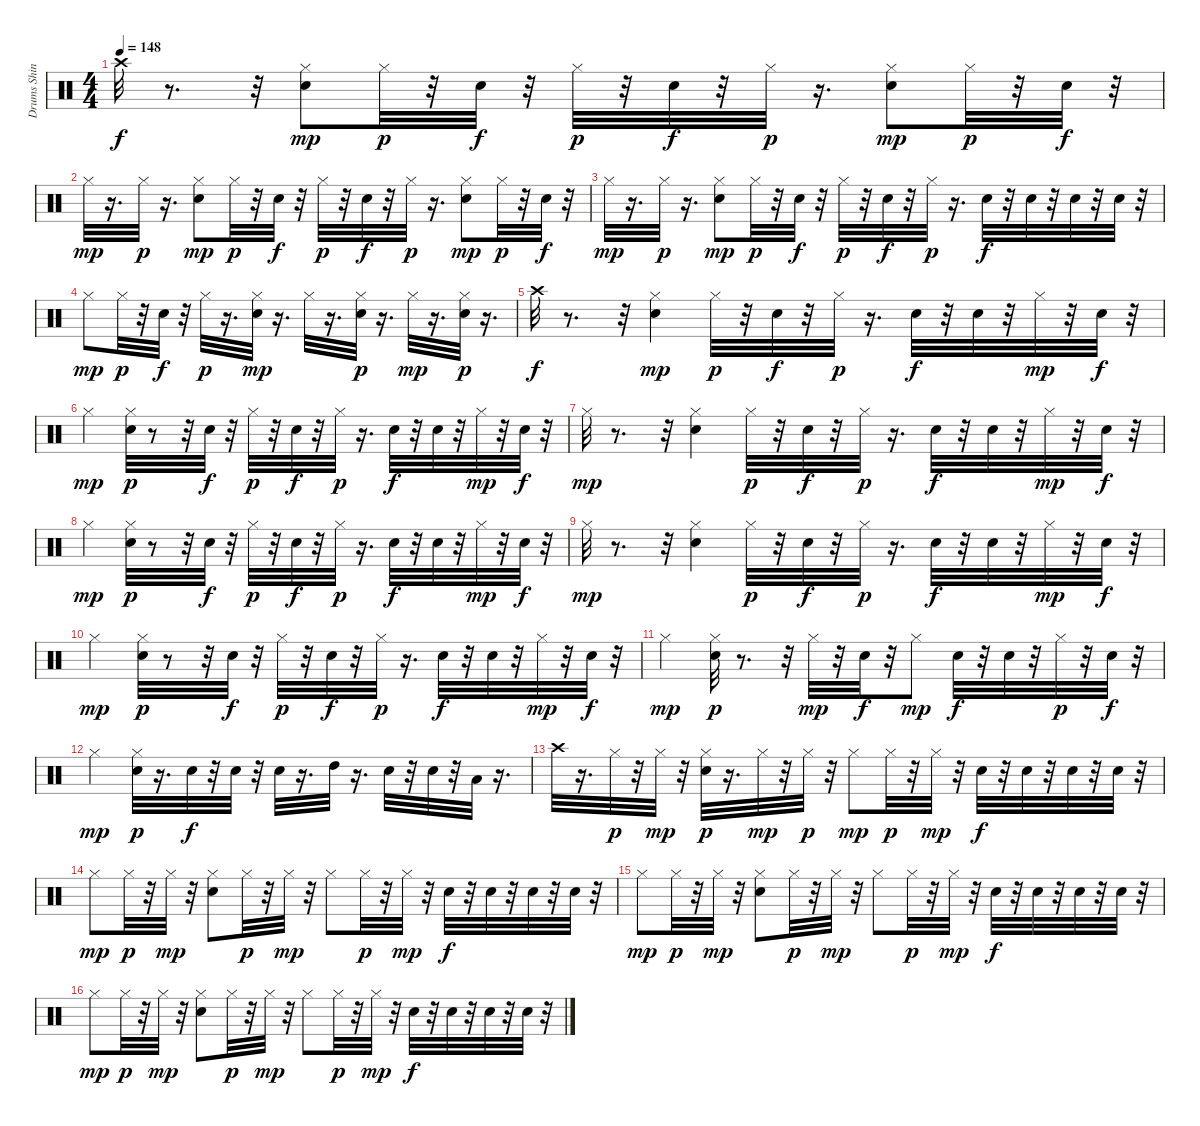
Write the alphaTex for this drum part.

\track ("Drums Shinya         " "Drums Shin") {instrument percussion}
\staff {score}
\articulation defaults
\ts (4 4)
\tempo 148
\clef neutral
\ks c "Crash high (hit)".32{dy f}
r.8{d} r.32 ("Electric Snare (hit)" "Hi-Hat (closed)").8{dy mp} "Hi-Hat (closed)".32{dy p} r.32 "Electric Snare (hit)".32{dy f} r.32 "Hi-Hat (closed)".32{dy p} r.32 "Electric Snare (hit)".32{dy f} r.32 "Hi-Hat (closed)".32{dy p} r.16{d} ("Electric Snare (hit)" "Hi-Hat (closed)").8{dy mp} "Hi-Hat (closed)".32{dy p} r.32 "Electric Snare (hit)".32{dy f} r.32 |
"Hi-Hat (closed)".32{dy mp} r.16{d} "Hi-Hat (closed)".32{dy p} r.16{d} ("Electric Snare (hit)" "Hi-Hat (closed)").8{dy mp} "Hi-Hat (closed)".32{dy p} r.32 "Electric Snare (hit)".32{dy f} r.32 "Hi-Hat (closed)".32{dy p} r.32 "Electric Snare (hit)".32{dy f} r.32 "Hi-Hat (closed)".32{dy p} r.16{d} ("Electric Snare (hit)" "Hi-Hat (closed)").8{dy mp} "Hi-Hat (closed)".32{dy p} r.32 "Electric Snare (hit)".32{dy f} r.32 |
"Hi-Hat (closed)".32{dy mp} r.16{d} "Hi-Hat (closed)".32{dy p} r.16{d} ("Electric Snare (hit)" "Hi-Hat (closed)").8{dy mp} "Hi-Hat (closed)".32{dy p} r.32 "Electric Snare (hit)".32{dy f} r.32 "Hi-Hat (closed)".32{dy p} r.32 "Electric Snare (hit)".32{dy f} r.32 "Hi-Hat (closed)".32{dy p} r.16{d} "Electric Snare (hit)".32{dy f} r.32 "Electric Snare (hit)".32 r.32 "Electric Snare (hit)".32 r.32 "Electric Snare (hit)".32 r.32 |
"Hi-Hat (closed)".8{dy mp} "Hi-Hat (closed)".32{dy p} r.32 "Electric Snare (hit)".32{dy f} r.32 "Hi-Hat (closed)".32{dy p} r.16{d} ("Electric Snare (hit)" "Hi-Hat (closed)").32{dy mp} r.16{d} "Hi-Hat (closed)".32 r.16{d} ("Electric Snare (hit)" "Hi-Hat (closed)").32{dy p} r.16{d} "Hi-Hat (closed)".32{dy mp} r.16{d} ("Electric Snare (hit)" "Hi-Hat (closed)").32{dy p} r.16{d} |
"Crash high (hit)".32{dy f} r.8{d} r.32 ("Electric Snare (hit)" "Hi-Hat (closed)").4{dy mp} "Hi-Hat (closed)".32{dy p} r.32 "Electric Snare (hit)".32{dy f} r.32 "Hi-Hat (closed)".32{dy p} r.16{d} "Electric Snare (hit)".32{dy f} r.32 "Electric Snare (hit)".32 r.32 "Hi-Hat (closed)".32{dy mp} r.32 "Electric Snare (hit)".32{dy f} r.32 |
"Hi-Hat (closed)".4{dy mp} ("Electric Snare (hit)" "Hi-Hat (closed)").32{dy p} r.8 r.32 "Electric Snare (hit)".32{dy f} r.32 "Hi-Hat (closed)".32{dy p} r.32 "Electric Snare (hit)".32{dy f} r.32 "Hi-Hat (closed)".32{dy p} r.16{d} "Electric Snare (hit)".32{dy f} r.32 "Electric Snare (hit)".32 r.32 "Hi-Hat (closed)".32{dy mp} r.32 "Electric Snare (hit)".32{dy f} r.32 |
"Hi-Hat (closed)".32{dy mp} r.8{d} r.32 ("Electric Snare (hit)" "Hi-Hat (closed)").4 "Hi-Hat (closed)".32{dy p} r.32 "Electric Snare (hit)".32{dy f} r.32 "Hi-Hat (closed)".32{dy p} r.16{d} "Electric Snare (hit)".32{dy f} r.32 "Electric Snare (hit)".32 r.32 "Hi-Hat (closed)".32{dy mp} r.32 "Electric Snare (hit)".32{dy f} r.32 |
"Hi-Hat (closed)".4{dy mp} ("Electric Snare (hit)" "Hi-Hat (closed)").32{dy p} r.8 r.32 "Electric Snare (hit)".32{dy f} r.32 "Hi-Hat (closed)".32{dy p} r.32 "Electric Snare (hit)".32{dy f} r.32 "Hi-Hat (closed)".32{dy p} r.16{d} "Electric Snare (hit)".32{dy f} r.32 "Electric Snare (hit)".32 r.32 "Hi-Hat (closed)".32{dy mp} r.32 "Electric Snare (hit)".32{dy f} r.32 |
"Hi-Hat (closed)".32{dy mp} r.8{d} r.32 ("Electric Snare (hit)" "Hi-Hat (closed)").4 "Hi-Hat (closed)".32{dy p} r.32 "Electric Snare (hit)".32{dy f} r.32 "Hi-Hat (closed)".32{dy p} r.16{d} "Electric Snare (hit)".32{dy f} r.32 "Electric Snare (hit)".32 r.32 "Hi-Hat (closed)".32{dy mp} r.32 "Electric Snare (hit)".32{dy f} r.32 |
"Hi-Hat (closed)".4{dy mp} ("Electric Snare (hit)" "Hi-Hat (closed)").32{dy p} r.8 r.32 "Electric Snare (hit)".32{dy f} r.32 "Hi-Hat (closed)".32{dy p} r.32 "Electric Snare (hit)".32{dy f} r.32 "Hi-Hat (closed)".32{dy p} r.16{d} "Electric Snare (hit)".32{dy f} r.32 "Electric Snare (hit)".32 r.32 "Hi-Hat (closed)".32{dy mp} r.32 "Electric Snare (hit)".32{dy f} r.32 |
"Hi-Hat (closed)".4{dy mp} ("Electric Snare (hit)" "Hi-Hat (closed)").32{dy p} r.8{d} r.32 "Hi-Hat (closed)".32{dy mp} r.32 "Electric Snare (hit)".32{dy f} r.32 "Hi-Hat (closed)".8{dy mp} "Electric Snare (hit)".32{dy f} r.32 "Electric Snare (hit)".32 r.32 "Hi-Hat (closed)".32{dy p} r.32 "Electric Snare (hit)".32{dy f} r.32 |
"Hi-Hat (closed)".4{dy mp} ("Electric Snare (hit)" "Hi-Hat (closed)").32{dy p} r.16{d} "Electric Snare (hit)".32{dy f} r.32 "Electric Snare (hit)".32 r.32 "Electric Snare (hit)".32 r.16{d} "High Tom (hit)".32 r.16{d} "Electric Snare (hit)".32 r.32 "Electric Snare (hit)".32 r.32 "Low Tom (hit)".32 r.16{d} |
"Crash high (hit)".32 r.16{d} "Hi-Hat (closed)".32{dy p} r.32 "Hi-Hat (closed)".32{dy mp} r.32 ("Electric Snare (hit)" "Hi-Hat (closed)").32{dy p} r.16{d} "Hi-Hat (closed)".32{dy mp} r.32 "Hi-Hat (closed)".32{dy p} r.32 "Hi-Hat (closed)".8{dy mp} "Hi-Hat (closed)".32{dy p} r.32 "Hi-Hat (closed)".32{dy mp} r.32 "Electric Snare (hit)".32{dy f} r.32 "Electric Snare (hit)".32 r.32 "Electric Snare (hit)".32 r.32 "Electric Snare (hit)".32 r.32 |
"Hi-Hat (closed)".8{dy mp} "Hi-Hat (closed)".32{dy p} r.32 "Hi-Hat (closed)".32{dy mp} r.32 ("Electric Snare (hit)" "Hi-Hat (closed)").8 "Hi-Hat (closed)".32{dy p} r.32 "Hi-Hat (closed)".32{dy mp} r.32 "Hi-Hat (closed)".8 "Hi-Hat (closed)".32{dy p} r.32 "Hi-Hat (closed)".32{dy mp} r.32 "Electric Snare (hit)".32{dy f} r.32 "Electric Snare (hit)".32 r.32 "Electric Snare (hit)".32 r.32 "Electric Snare (hit)".32 r.32 |
"Hi-Hat (closed)".8{dy mp} "Hi-Hat (closed)".32{dy p} r.32 "Hi-Hat (closed)".32{dy mp} r.32 ("Electric Snare (hit)" "Hi-Hat (closed)").8 "Hi-Hat (closed)".32{dy p} r.32 "Hi-Hat (closed)".32{dy mp} r.32 "Hi-Hat (closed)".8 "Hi-Hat (closed)".32{dy p} r.32 "Hi-Hat (closed)".32{dy mp} r.32 "Electric Snare (hit)".32{dy f} r.32 "Electric Snare (hit)".32 r.32 "Electric Snare (hit)".32 r.32 "Electric Snare (hit)".32 r.32 |
"Hi-Hat (closed)".8{dy mp} "Hi-Hat (closed)".32{dy p} r.32 "Hi-Hat (closed)".32{dy mp} r.32 ("Electric Snare (hit)" "Hi-Hat (closed)").8 "Hi-Hat (closed)".32{dy p} r.32 "Hi-Hat (closed)".32{dy mp} r.32 "Hi-Hat (closed)".8 "Hi-Hat (closed)".32{dy p} r.32 "Hi-Hat (closed)".32{dy mp} r.32 "Electric Snare (hit)".32{dy f} r.32 "Electric Snare (hit)".32 r.32 "Electric Snare (hit)".32 r.32 "Electric Snare (hit)".32 r.32
